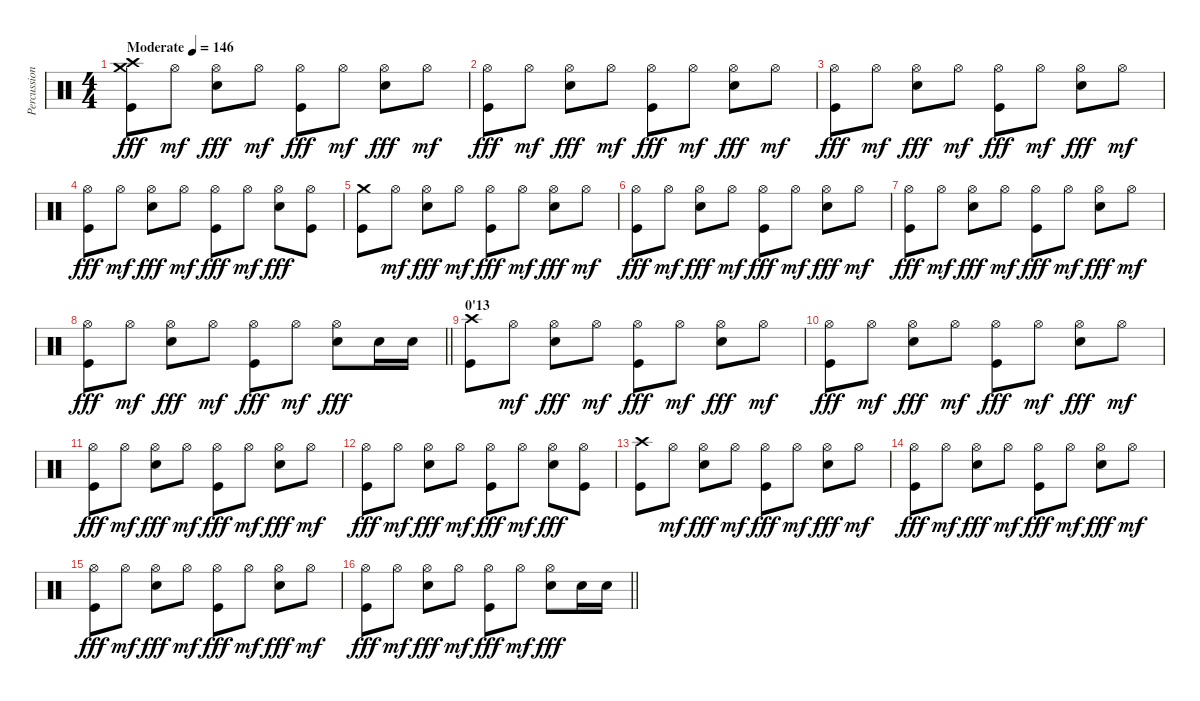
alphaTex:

\track ("Percussions" "Percussion") {instrument percussion}
\staff {score}
\articulation defaults
\ts (4 4)
\tempo (146 "Moderate")
\clef neutral
\ks c
("Crash high (hit)" "Crash medium (hit)" "Kick (hit)").8{dy fff} "Hi-Hat (open)".8{dy mf} ("Hi-Hat (open)" "Snare (hit) 2").8{dy fff} "Hi-Hat (open)".8{dy mf} ("Hi-Hat (open)" "Kick (hit)").8{dy fff} "Hi-Hat (open)".8{dy mf} ("Hi-Hat (open)" "Snare (hit) 2").8{dy fff} "Hi-Hat (open)".8{dy mf} |
("Hi-Hat (open)" "Kick (hit)").8{dy fff} "Hi-Hat (open)".8{dy mf} ("Hi-Hat (open)" "Snare (hit) 2").8{dy fff} "Hi-Hat (open)".8{dy mf} ("Hi-Hat (open)" "Kick (hit)").8{dy fff} "Hi-Hat (open)".8{dy mf} ("Hi-Hat (open)" "Snare (hit) 2").8{dy fff} "Hi-Hat (open)".8{dy mf} |
("Hi-Hat (open)" "Kick (hit)").8{dy fff} "Hi-Hat (open)".8{dy mf} ("Hi-Hat (open)" "Snare (hit) 2").8{dy fff} "Hi-Hat (open)".8{dy mf} ("Hi-Hat (open)" "Kick (hit)").8{dy fff} "Hi-Hat (open)".8{dy mf} ("Hi-Hat (open)" "Snare (hit) 2").8{dy fff} "Hi-Hat (open)".8{dy mf} |
("Hi-Hat (open)" "Kick (hit)").8{dy fff} "Hi-Hat (open)".8{dy mf} ("Hi-Hat (open)" "Snare (hit) 2").8{dy fff} "Hi-Hat (open)".8{dy mf} ("Hi-Hat (open)" "Kick (hit)").8{dy fff} "Hi-Hat (open)".8{dy mf} ("Hi-Hat (open)" "Snare (hit) 2").8{dy fff} ("Hi-Hat (open)" "Kick (hit)").8 |
("Crash medium (hit)" "Kick (hit)").8 "Hi-Hat (open)".8{dy mf} ("Hi-Hat (open)" "Snare (hit) 2").8{dy fff} "Hi-Hat (open)".8{dy mf} ("Hi-Hat (open)" "Kick (hit)").8{dy fff} "Hi-Hat (open)".8{dy mf} ("Hi-Hat (open)" "Snare (hit) 2").8{dy fff} "Hi-Hat (open)".8{dy mf} |
("Hi-Hat (open)" "Kick (hit)").8{dy fff} "Hi-Hat (open)".8{dy mf} ("Hi-Hat (open)" "Snare (hit) 2").8{dy fff} "Hi-Hat (open)".8{dy mf} ("Hi-Hat (open)" "Kick (hit)").8{dy fff} "Hi-Hat (open)".8{dy mf} ("Hi-Hat (open)" "Snare (hit) 2").8{dy fff} "Hi-Hat (open)".8{dy mf} |
("Hi-Hat (open)" "Kick (hit)").8{dy fff} "Hi-Hat (open)".8{dy mf} ("Hi-Hat (open)" "Snare (hit) 2").8{dy fff} "Hi-Hat (open)".8{dy mf} ("Hi-Hat (open)" "Kick (hit)").8{dy fff} "Hi-Hat (open)".8{dy mf} ("Hi-Hat (open)" "Snare (hit) 2").8{dy fff} "Hi-Hat (open)".8{dy mf} |
\barLineRight lightlight
("Hi-Hat (open)" "Kick (hit)").8{dy fff} "Hi-Hat (open)".8{dy mf} ("Hi-Hat (open)" "Snare (hit) 2").8{dy fff} "Hi-Hat (open)".8{dy mf} ("Hi-Hat (open)" "Kick (hit)").8{dy fff} "Hi-Hat (open)".8{dy mf} ("Hi-Hat (open)" "Snare (hit) 2").8{dy fff} "Snare (hit) 2".16 "Snare (hit) 2".16 |
\section ("" "0'13")
("Crash high (hit)" "Kick (hit)").8 "Hi-Hat (open)".8{dy mf} ("Hi-Hat (open)" "Snare (hit) 2").8{dy fff} "Hi-Hat (open)".8{dy mf} ("Hi-Hat (open)" "Kick (hit)").8{dy fff} "Hi-Hat (open)".8{dy mf} ("Hi-Hat (open)" "Snare (hit) 2").8{dy fff} "Hi-Hat (open)".8{dy mf} |
("Hi-Hat (open)" "Kick (hit)").8{dy fff} "Hi-Hat (open)".8{dy mf} ("Hi-Hat (open)" "Snare (hit) 2").8{dy fff} "Hi-Hat (open)".8{dy mf} ("Hi-Hat (open)" "Kick (hit)").8{dy fff} "Hi-Hat (open)".8{dy mf} ("Hi-Hat (open)" "Snare (hit) 2").8{dy fff} "Hi-Hat (open)".8{dy mf} |
("Hi-Hat (open)" "Kick (hit)").8{dy fff} "Hi-Hat (open)".8{dy mf} ("Hi-Hat (open)" "Snare (hit) 2").8{dy fff} "Hi-Hat (open)".8{dy mf} ("Hi-Hat (open)" "Kick (hit)").8{dy fff} "Hi-Hat (open)".8{dy mf} ("Hi-Hat (open)" "Snare (hit) 2").8{dy fff} "Hi-Hat (open)".8{dy mf} |
("Hi-Hat (open)" "Kick (hit)").8{dy fff} "Hi-Hat (open)".8{dy mf} ("Hi-Hat (open)" "Snare (hit) 2").8{dy fff} "Hi-Hat (open)".8{dy mf} ("Hi-Hat (open)" "Kick (hit)").8{dy fff} "Hi-Hat (open)".8{dy mf} ("Hi-Hat (open)" "Snare (hit) 2").8{dy fff} ("Hi-Hat (open)" "Kick (hit)").8 |
("Crash high (hit)" "Kick (hit)").8 "Hi-Hat (open)".8{dy mf} ("Hi-Hat (open)" "Snare (hit) 2").8{dy fff} "Hi-Hat (open)".8{dy mf} ("Hi-Hat (open)" "Kick (hit)").8{dy fff} "Hi-Hat (open)".8{dy mf} ("Hi-Hat (open)" "Snare (hit) 2").8{dy fff} "Hi-Hat (open)".8{dy mf} |
("Hi-Hat (open)" "Kick (hit)").8{dy fff} "Hi-Hat (open)".8{dy mf} ("Hi-Hat (open)" "Snare (hit) 2").8{dy fff} "Hi-Hat (open)".8{dy mf} ("Hi-Hat (open)" "Kick (hit)").8{dy fff} "Hi-Hat (open)".8{dy mf} ("Hi-Hat (open)" "Snare (hit) 2").8{dy fff} "Hi-Hat (open)".8{dy mf} |
("Hi-Hat (open)" "Kick (hit)").8{dy fff} "Hi-Hat (open)".8{dy mf} ("Hi-Hat (open)" "Snare (hit) 2").8{dy fff} "Hi-Hat (open)".8{dy mf} ("Hi-Hat (open)" "Kick (hit)").8{dy fff} "Hi-Hat (open)".8{dy mf} ("Hi-Hat (open)" "Snare (hit) 2").8{dy fff} "Hi-Hat (open)".8{dy mf} |
\barLineRight lightlight
("Hi-Hat (open)" "Kick (hit)").8{dy fff} "Hi-Hat (open)".8{dy mf} ("Hi-Hat (open)" "Snare (hit) 2").8{dy fff} "Hi-Hat (open)".8{dy mf} ("Hi-Hat (open)" "Kick (hit)").8{dy fff} "Hi-Hat (open)".8{dy mf} ("Hi-Hat (open)" "Snare (hit) 2").8{dy fff} "Snare (hit) 2".16 "Snare (hit) 2".16
